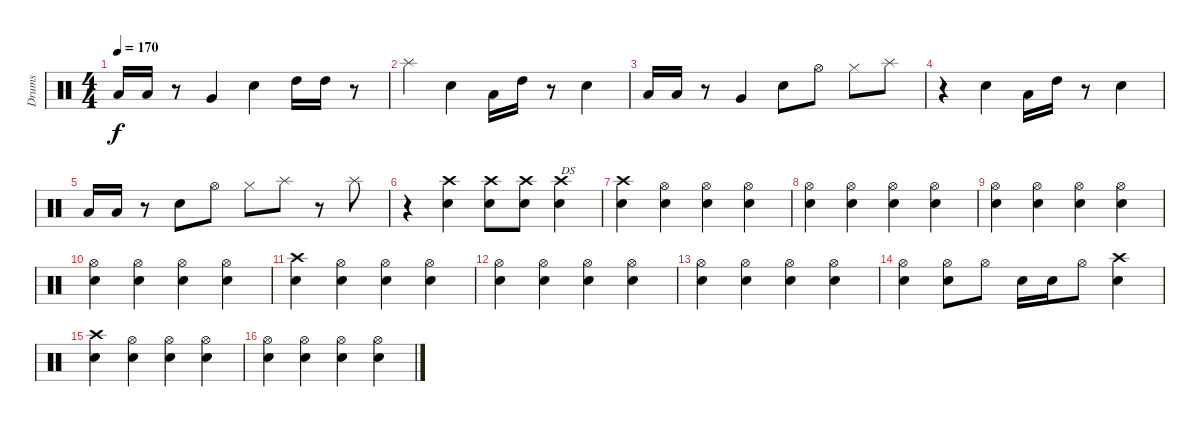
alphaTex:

\track ("Drums" "Drums") {instrument percussion}
\staff {score}
\articulation defaults
\ts (4 4)
\tempo 170
\clef neutral
\ks c "Low Tom (hit)".16{dy f} "Low Tom (hit)".16
r.8 "Very Low Tom (hit)".4 "Snare (hit) 2".4 "High Tom (hit)".16 "High Tom (hit)".16 r.8 |
"Splash (hit)".4 "Snare (hit) 2".4 "Low Tom (hit)".16 "High Tom (hit)".16 r.8 "Snare (hit) 2".4 |
"Low Tom (hit)".16 "Low Tom (hit)".16 r.8 "Very Low Tom (hit)".4 "Snare (hit) 2".8 "Hi-Hat (open)".8 "Hi-Hat (closed)".8 "Splash (hit)".8 |
r.4 "Snare (hit) 2".4 "Low Tom (hit)".16 "High Tom (hit)".16 r.8 "Snare (hit) 2".4 |
"Low Tom (hit)".16 "Low Tom (hit)".16 r.8 "Snare (hit) 2".8 "Hi-Hat (open)".8 "Hi-Hat (closed)".8 "Splash (hit)".8 r.8 "Splash (hit)".8 |
r.4 ("Crash high (hit)" "Snare (hit) 2").4 ("Crash high (hit)" "Snare (hit) 2").8 ("Crash high (hit)" "Snare (hit) 2").8 ("Crash high (hit)" "Snare (hit) 2").4{txt "DS"} |
("Crash high (hit)" "Snare (hit) 2").4 ("Hi-Hat (open)" "Snare (hit) 2").4 ("Hi-Hat (open)" "Snare (hit) 2").4 ("Hi-Hat (open)" "Snare (hit) 2").4 |
("Hi-Hat (open)" "Snare (hit) 2").4 ("Hi-Hat (open)" "Snare (hit) 2").4 ("Hi-Hat (open)" "Snare (hit) 2").4 ("Hi-Hat (open)" "Snare (hit) 2").4 |
("Hi-Hat (open)" "Snare (hit) 2").4 ("Hi-Hat (open)" "Snare (hit) 2").4 ("Hi-Hat (open)" "Snare (hit) 2").4 ("Hi-Hat (open)" "Snare (hit) 2").4 |
("Hi-Hat (open)" "Snare (hit) 2").4 ("Hi-Hat (open)" "Snare (hit) 2").4 ("Hi-Hat (open)" "Snare (hit) 2").4 ("Hi-Hat (open)" "Snare (hit) 2").4 |
("Crash high (hit)" "Snare (hit) 2").4 ("Hi-Hat (open)" "Snare (hit) 2").4 ("Hi-Hat (open)" "Snare (hit) 2").4 ("Hi-Hat (open)" "Snare (hit) 2").4 |
("Hi-Hat (open)" "Snare (hit) 2").4 ("Hi-Hat (open)" "Snare (hit) 2").4 ("Hi-Hat (open)" "Snare (hit) 2").4 ("Hi-Hat (open)" "Snare (hit) 2").4 |
("Hi-Hat (open)" "Snare (hit) 2").4 ("Hi-Hat (open)" "Snare (hit) 2").4 ("Hi-Hat (open)" "Snare (hit) 2").4 ("Hi-Hat (open)" "Snare (hit) 2").4 |
("Hi-Hat (open)" "Snare (hit) 2").4 ("Hi-Hat (open)" "Snare (hit) 2").8 "Hi-Hat (open)".8 "Snare (hit) 2".16 "Snare (hit) 2".16 "Hi-Hat (open)".8 ("Crash high (hit)" "Snare (hit) 2").4 |
("Crash high (hit)" "Snare (hit) 2").4 ("Hi-Hat (open)" "Snare (hit) 2").4 ("Hi-Hat (open)" "Snare (hit) 2").4 ("Hi-Hat (open)" "Snare (hit) 2").4 |
("Hi-Hat (open)" "Snare (hit) 2").4 ("Hi-Hat (open)" "Snare (hit) 2").4 ("Hi-Hat (open)" "Snare (hit) 2").4 ("Hi-Hat (open)" "Snare (hit) 2").4
